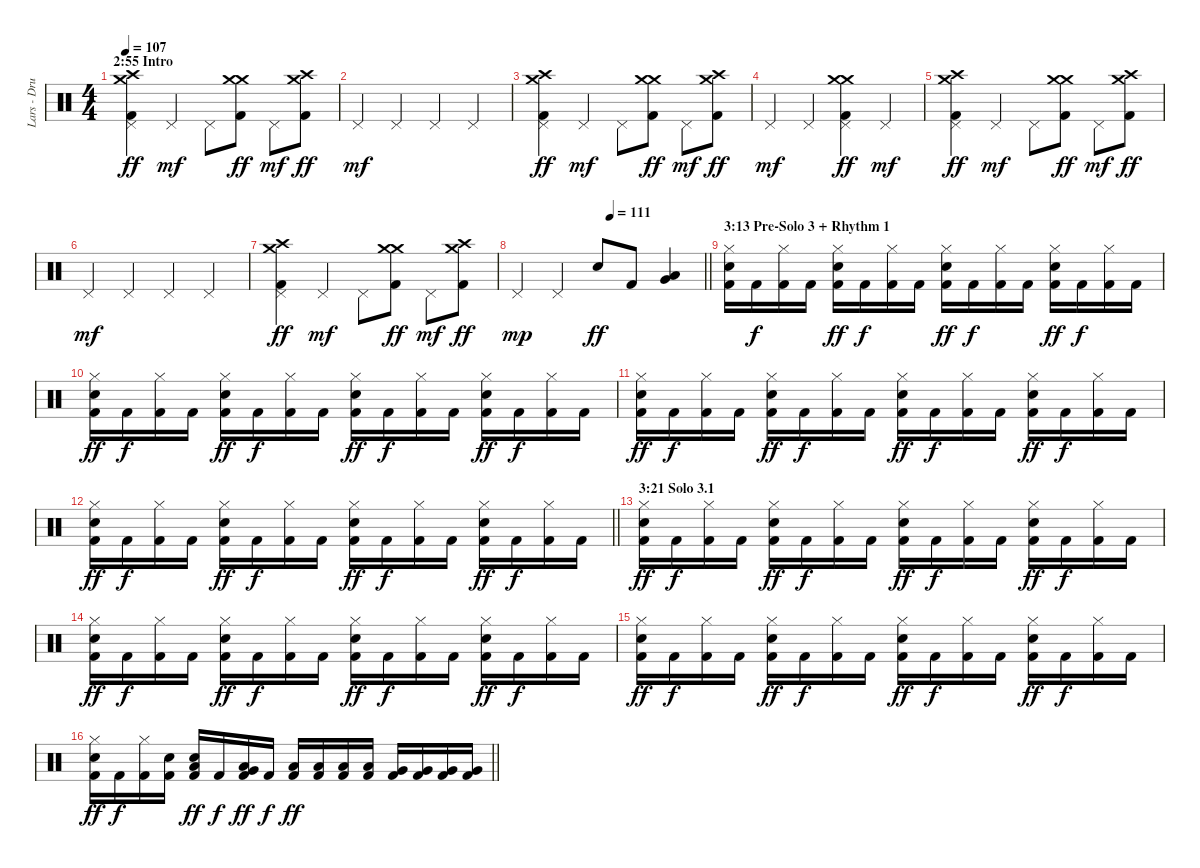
\track ("Lars - Drums + tempi marker" "Lars - Dru") {instrument percussion}
\staff {score}
\articulation defaults
\ts (4 4)
\section ("" "2:55 Intro")
\tempo 107
\clef neutral
\ks c
("Crash high (hit)" "Crash medium (hit)" "Pedal Hi-Hat (hit)" "Kick (hit) 2").4{dy ff} "Pedal Hi-Hat (hit)".4{dy mf} "Pedal Hi-Hat (hit)".8 ("Crash medium (hit)" "Crash medium (hit)" "Kick (hit) 2").8{dy ff} "Pedal Hi-Hat (hit)".8{dy mf} ("Crash high (hit)" "Crash medium (hit)" "Kick (hit) 2").8{dy ff} |
"Pedal Hi-Hat (hit)".4{dy mf} "Pedal Hi-Hat (hit)".4 "Pedal Hi-Hat (hit)".4 "Pedal Hi-Hat (hit)".4 |
("Crash high (hit)" "Crash medium (hit)" "Pedal Hi-Hat (hit)" "Kick (hit) 2").4{dy ff} "Pedal Hi-Hat (hit)".4{dy mf} "Pedal Hi-Hat (hit)".8 ("Crash medium (hit)" "Crash medium (hit)" "Kick (hit) 2").8{dy ff} "Pedal Hi-Hat (hit)".8{dy mf} ("Crash high (hit)" "Crash medium (hit)" "Kick (hit) 2").8{dy ff} |
"Pedal Hi-Hat (hit)".4{dy mf} "Pedal Hi-Hat (hit)".4 ("Crash medium (hit)" "Crash medium (hit)" "Pedal Hi-Hat (hit)" "Kick (hit) 2").4{dy ff} "Pedal Hi-Hat (hit)".4{dy mf} |
("Crash high (hit)" "Crash medium (hit)" "Pedal Hi-Hat (hit)" "Kick (hit) 2").4{dy ff} "Pedal Hi-Hat (hit)".4{dy mf} "Pedal Hi-Hat (hit)".8 ("Crash medium (hit)" "Crash medium (hit)" "Kick (hit) 2").8{dy ff} "Pedal Hi-Hat (hit)".8{dy mf} ("Crash high (hit)" "Crash medium (hit)" "Kick (hit) 2").8{dy ff} |
"Pedal Hi-Hat (hit)".4{dy mf} "Pedal Hi-Hat (hit)".4 "Pedal Hi-Hat (hit)".4 "Pedal Hi-Hat (hit)".4 |
("Crash high (hit)" "Crash medium (hit)" "Pedal Hi-Hat (hit)" "Kick (hit) 2").4{dy ff} "Pedal Hi-Hat (hit)".4{dy mf} "Pedal Hi-Hat (hit)".8 ("Crash medium (hit)" "Crash medium (hit)" "Kick (hit) 2").8{dy ff} "Pedal Hi-Hat (hit)".8{dy mf} ("Crash high (hit)" "Crash medium (hit)" "Kick (hit) 2").8{dy ff} |
\tempo (111 0.5)
\barLineRight lightlight "Pedal Hi-Hat (hit)".4{dy mp} "Pedal Hi-Hat (hit)".4 "Electric Snare (hit)".8{dy ff} "Kick (hit) 2".8
("Very Low Tom (hit)" "Low Floor Tom (hit)").4 |
\section ("" "3:13 Pre-Solo 3 + Rhythm 1")
("Electric Snare (hit)" "Hi-Hat (closed)" "Kick (hit) 2").16 "Kick (hit) 2".16{dy f} ("Hi-Hat (closed)" "Kick (hit) 2").16 "Kick (hit) 2".16 ("Electric Snare (hit)" "Hi-Hat (closed)" "Kick (hit) 2").16{dy ff} "Kick (hit) 2".16{dy f} ("Hi-Hat (closed)" "Kick (hit) 2").16 "Kick (hit) 2".16 ("Electric Snare (hit)" "Hi-Hat (closed)" "Kick (hit) 2").16{dy ff} "Kick (hit) 2".16{dy f} ("Hi-Hat (closed)" "Kick (hit) 2").16 "Kick (hit) 2".16 ("Electric Snare (hit)" "Hi-Hat (closed)" "Kick (hit) 2").16{dy ff} "Kick (hit) 2".16{dy f} ("Hi-Hat (closed)" "Kick (hit) 2").16 "Kick (hit) 2".16 |
("Electric Snare (hit)" "Hi-Hat (closed)" "Kick (hit) 2").16{dy ff} "Kick (hit) 2".16{dy f} ("Hi-Hat (closed)" "Kick (hit) 2").16 "Kick (hit) 2".16 ("Electric Snare (hit)" "Hi-Hat (closed)" "Kick (hit) 2").16{dy ff} "Kick (hit) 2".16{dy f} ("Hi-Hat (closed)" "Kick (hit) 2").16 "Kick (hit) 2".16 ("Electric Snare (hit)" "Hi-Hat (closed)" "Kick (hit) 2").16{dy ff} "Kick (hit) 2".16{dy f} ("Hi-Hat (closed)" "Kick (hit) 2").16 "Kick (hit) 2".16 ("Electric Snare (hit)" "Hi-Hat (closed)" "Kick (hit) 2").16{dy ff} "Kick (hit) 2".16{dy f} ("Hi-Hat (closed)" "Kick (hit) 2").16 "Kick (hit) 2".16 |
("Electric Snare (hit)" "Hi-Hat (closed)" "Kick (hit) 2").16{dy ff} "Kick (hit) 2".16{dy f} ("Hi-Hat (closed)" "Kick (hit) 2").16 "Kick (hit) 2".16 ("Electric Snare (hit)" "Hi-Hat (closed)" "Kick (hit) 2").16{dy ff} "Kick (hit) 2".16{dy f} ("Hi-Hat (closed)" "Kick (hit) 2").16 "Kick (hit) 2".16 ("Electric Snare (hit)" "Hi-Hat (closed)" "Kick (hit) 2").16{dy ff} "Kick (hit) 2".16{dy f} ("Hi-Hat (closed)" "Kick (hit) 2").16 "Kick (hit) 2".16 ("Electric Snare (hit)" "Hi-Hat (closed)" "Kick (hit) 2").16{dy ff} "Kick (hit) 2".16{dy f} ("Hi-Hat (closed)" "Kick (hit) 2").16 "Kick (hit) 2".16 |
\barLineRight lightlight
("Electric Snare (hit)" "Hi-Hat (closed)" "Kick (hit) 2").16{dy ff} "Kick (hit) 2".16{dy f} ("Hi-Hat (closed)" "Kick (hit) 2").16 "Kick (hit) 2".16 ("Electric Snare (hit)" "Hi-Hat (closed)" "Kick (hit) 2").16{dy ff} "Kick (hit) 2".16{dy f} ("Hi-Hat (closed)" "Kick (hit) 2").16 "Kick (hit) 2".16 ("Electric Snare (hit)" "Hi-Hat (closed)" "Kick (hit) 2").16{dy ff} "Kick (hit) 2".16{dy f} ("Hi-Hat (closed)" "Kick (hit) 2").16 "Kick (hit) 2".16 ("Electric Snare (hit)" "Hi-Hat (closed)" "Kick (hit) 2").16{dy ff} "Kick (hit) 2".16{dy f} ("Hi-Hat (closed)" "Kick (hit) 2").16 "Kick (hit) 2".16 |
\section ("" "3:21 Solo 3.1")
("Electric Snare (hit)" "Hi-Hat (closed)" "Kick (hit) 2").16{dy ff} "Kick (hit) 2".16{dy f} ("Hi-Hat (closed)" "Kick (hit) 2").16 "Kick (hit) 2".16 ("Electric Snare (hit)" "Hi-Hat (closed)" "Kick (hit) 2").16{dy ff} "Kick (hit) 2".16{dy f} ("Hi-Hat (closed)" "Kick (hit) 2").16 "Kick (hit) 2".16 ("Electric Snare (hit)" "Hi-Hat (closed)" "Kick (hit) 2").16{dy ff} "Kick (hit) 2".16{dy f} ("Hi-Hat (closed)" "Kick (hit) 2").16 "Kick (hit) 2".16 ("Electric Snare (hit)" "Hi-Hat (closed)" "Kick (hit) 2").16{dy ff} "Kick (hit) 2".16{dy f} ("Hi-Hat (closed)" "Kick (hit) 2").16 "Kick (hit) 2".16 |
("Electric Snare (hit)" "Hi-Hat (closed)" "Kick (hit) 2").16{dy ff} "Kick (hit) 2".16{dy f} ("Hi-Hat (closed)" "Kick (hit) 2").16 "Kick (hit) 2".16 ("Electric Snare (hit)" "Hi-Hat (closed)" "Kick (hit) 2").16{dy ff} "Kick (hit) 2".16{dy f} ("Hi-Hat (closed)" "Kick (hit) 2").16 "Kick (hit) 2".16 ("Electric Snare (hit)" "Hi-Hat (closed)" "Kick (hit) 2").16{dy ff} "Kick (hit) 2".16{dy f} ("Hi-Hat (closed)" "Kick (hit) 2").16 "Kick (hit) 2".16 ("Electric Snare (hit)" "Hi-Hat (closed)" "Kick (hit) 2").16{dy ff} "Kick (hit) 2".16{dy f} ("Hi-Hat (closed)" "Kick (hit) 2").16 "Kick (hit) 2".16 |
("Electric Snare (hit)" "Hi-Hat (closed)" "Kick (hit) 2").16{dy ff} "Kick (hit) 2".16{dy f} ("Hi-Hat (closed)" "Kick (hit) 2").16 "Kick (hit) 2".16 ("Electric Snare (hit)" "Hi-Hat (closed)" "Kick (hit) 2").16{dy ff} "Kick (hit) 2".16{dy f} ("Hi-Hat (closed)" "Kick (hit) 2").16 "Kick (hit) 2".16 ("Electric Snare (hit)" "Hi-Hat (closed)" "Kick (hit) 2").16{dy ff} "Kick (hit) 2".16{dy f} ("Hi-Hat (closed)" "Kick (hit) 2").16 "Kick (hit) 2".16 ("Electric Snare (hit)" "Hi-Hat (closed)" "Kick (hit) 2").16{dy ff} "Kick (hit) 2".16{dy f} ("Hi-Hat (closed)" "Kick (hit) 2").16 "Kick (hit) 2".16 |
\barLineRight lightlight
("Electric Snare (hit)" "Hi-Hat (closed)" "Kick (hit) 2").16{dy ff} "Kick (hit) 2".16{dy f} ("Hi-Hat (closed)" "Kick (hit) 2").16 ("Electric Snare (hit)" "Kick (hit) 2").16 ("Electric Snare (hit)" "Low Floor Tom (hit)" "Kick (hit) 2").16{dy ff} "Kick (hit) 2".16{dy f} ("Very Low Tom (hit)" "Low Floor Tom (hit)" "Kick (hit) 2").16{dy ff} "Kick (hit) 2".16{dy f} ("Low Tom (hit)" "Kick (hit) 2").16{dy ff} ("Low Tom (hit)" "Kick (hit) 2").16 ("Low Tom (hit)" "Kick (hit) 2").16 ("Low Tom (hit)" "Kick (hit) 2").16 ("Very Low Tom (hit)" "Kick (hit) 2").16 ("Very Low Tom (hit)" "Kick (hit) 2").16 ("Very Low Tom (hit)" "Kick (hit) 2").16 ("Very Low Tom (hit)" "Kick (hit) 2").16
